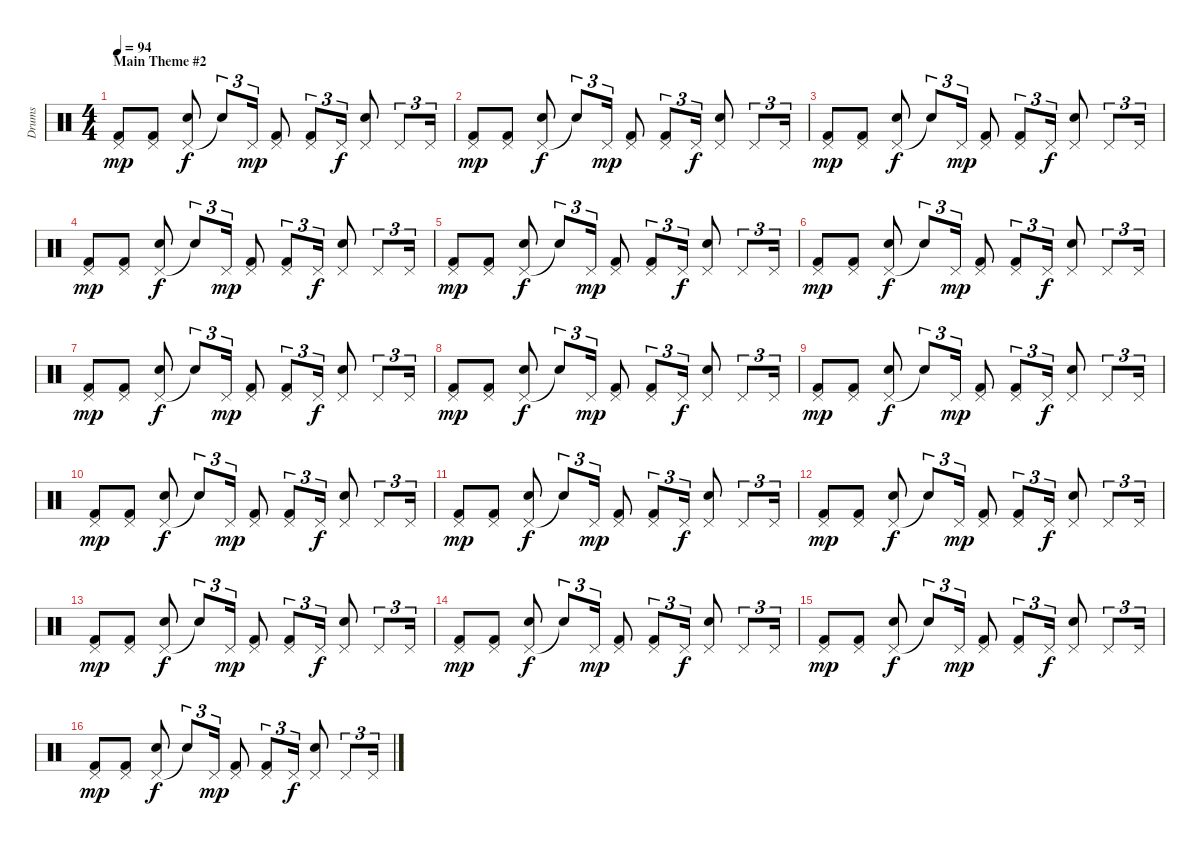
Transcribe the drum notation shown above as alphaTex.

\track ("Drums" "Drums") {instrument percussion}
\staff {score}
\articulation defaults
\ts (4 4)
\section ("" "Main Theme #2")
\tempo 94
\clef neutral
\ks c
("Pedal Hi-Hat (hit)" "Kick (hit) 2").8{dy mp} ("Pedal Hi-Hat (hit)" "Kick (hit) 2").8 ("Pedal Hi-Hat (hit)" "Electric Snare (hit)").8{dy f} "Snare (hit)"{t}.8{tu (3 2)} "Pedal Hi-Hat (hit)".16{tu (3 2) dy mp} ("Pedal Hi-Hat (hit)" "Kick (hit) 2").8 ("Pedal Hi-Hat (hit)" "Kick (hit) 2").8{tu (3 2)} "Pedal Hi-Hat (hit)".16{tu (3 2) dy f} ("Pedal Hi-Hat (hit)" "Electric Snare (hit)").8 "Pedal Hi-Hat (hit)".8{tu (3 2)} "Pedal Hi-Hat (hit)".16{tu (3 2)} |
("Pedal Hi-Hat (hit)" "Kick (hit) 2").8{dy mp} ("Pedal Hi-Hat (hit)" "Kick (hit) 2").8 ("Pedal Hi-Hat (hit)" "Electric Snare (hit)").8{dy f} "Snare (hit)"{t}.8{tu (3 2)} "Pedal Hi-Hat (hit)".16{tu (3 2) dy mp} ("Pedal Hi-Hat (hit)" "Kick (hit) 2").8 ("Pedal Hi-Hat (hit)" "Kick (hit) 2").8{tu (3 2)} "Pedal Hi-Hat (hit)".16{tu (3 2) dy f} ("Pedal Hi-Hat (hit)" "Electric Snare (hit)").8 "Pedal Hi-Hat (hit)".8{tu (3 2)} "Pedal Hi-Hat (hit)".16{tu (3 2)} |
("Pedal Hi-Hat (hit)" "Kick (hit) 2").8{dy mp} ("Pedal Hi-Hat (hit)" "Kick (hit) 2").8 ("Pedal Hi-Hat (hit)" "Electric Snare (hit)").8{dy f} "Snare (hit)"{t}.8{tu (3 2)} "Pedal Hi-Hat (hit)".16{tu (3 2) dy mp} ("Pedal Hi-Hat (hit)" "Kick (hit) 2").8 ("Pedal Hi-Hat (hit)" "Kick (hit) 2").8{tu (3 2)} "Pedal Hi-Hat (hit)".16{tu (3 2) dy f} ("Pedal Hi-Hat (hit)" "Electric Snare (hit)").8 "Pedal Hi-Hat (hit)".8{tu (3 2)} "Pedal Hi-Hat (hit)".16{tu (3 2)} |
("Pedal Hi-Hat (hit)" "Kick (hit) 2").8{dy mp} ("Pedal Hi-Hat (hit)" "Kick (hit) 2").8 ("Pedal Hi-Hat (hit)" "Electric Snare (hit)").8{dy f} "Snare (hit)"{t}.8{tu (3 2)} "Pedal Hi-Hat (hit)".16{tu (3 2) dy mp} ("Pedal Hi-Hat (hit)" "Kick (hit) 2").8 ("Pedal Hi-Hat (hit)" "Kick (hit) 2").8{tu (3 2)} "Pedal Hi-Hat (hit)".16{tu (3 2) dy f} ("Pedal Hi-Hat (hit)" "Electric Snare (hit)").8 "Pedal Hi-Hat (hit)".8{tu (3 2)} "Pedal Hi-Hat (hit)".16{tu (3 2)} |
("Pedal Hi-Hat (hit)" "Kick (hit) 2").8{dy mp} ("Pedal Hi-Hat (hit)" "Kick (hit) 2").8 ("Pedal Hi-Hat (hit)" "Electric Snare (hit)").8{dy f} "Snare (hit)"{t}.8{tu (3 2)} "Pedal Hi-Hat (hit)".16{tu (3 2) dy mp} ("Pedal Hi-Hat (hit)" "Kick (hit) 2").8 ("Pedal Hi-Hat (hit)" "Kick (hit) 2").8{tu (3 2)} "Pedal Hi-Hat (hit)".16{tu (3 2) dy f} ("Pedal Hi-Hat (hit)" "Electric Snare (hit)").8 "Pedal Hi-Hat (hit)".8{tu (3 2)} "Pedal Hi-Hat (hit)".16{tu (3 2)} |
("Pedal Hi-Hat (hit)" "Kick (hit) 2").8{dy mp} ("Pedal Hi-Hat (hit)" "Kick (hit) 2").8 ("Pedal Hi-Hat (hit)" "Electric Snare (hit)").8{dy f} "Snare (hit)"{t}.8{tu (3 2)} "Pedal Hi-Hat (hit)".16{tu (3 2) dy mp} ("Pedal Hi-Hat (hit)" "Kick (hit) 2").8 ("Pedal Hi-Hat (hit)" "Kick (hit) 2").8{tu (3 2)} "Pedal Hi-Hat (hit)".16{tu (3 2) dy f} ("Pedal Hi-Hat (hit)" "Electric Snare (hit)").8 "Pedal Hi-Hat (hit)".8{tu (3 2)} "Pedal Hi-Hat (hit)".16{tu (3 2)} |
("Pedal Hi-Hat (hit)" "Kick (hit) 2").8{dy mp} ("Pedal Hi-Hat (hit)" "Kick (hit) 2").8 ("Pedal Hi-Hat (hit)" "Electric Snare (hit)").8{dy f} "Snare (hit)"{t}.8{tu (3 2)} "Pedal Hi-Hat (hit)".16{tu (3 2) dy mp} ("Pedal Hi-Hat (hit)" "Kick (hit) 2").8 ("Pedal Hi-Hat (hit)" "Kick (hit) 2").8{tu (3 2)} "Pedal Hi-Hat (hit)".16{tu (3 2) dy f} ("Pedal Hi-Hat (hit)" "Electric Snare (hit)").8 "Pedal Hi-Hat (hit)".8{tu (3 2)} "Pedal Hi-Hat (hit)".16{tu (3 2)} |
("Pedal Hi-Hat (hit)" "Kick (hit) 2").8{dy mp} ("Pedal Hi-Hat (hit)" "Kick (hit) 2").8 ("Pedal Hi-Hat (hit)" "Electric Snare (hit)").8{dy f} "Snare (hit)"{t}.8{tu (3 2)} "Pedal Hi-Hat (hit)".16{tu (3 2) dy mp} ("Pedal Hi-Hat (hit)" "Kick (hit) 2").8 ("Pedal Hi-Hat (hit)" "Kick (hit) 2").8{tu (3 2)} "Pedal Hi-Hat (hit)".16{tu (3 2) dy f} ("Pedal Hi-Hat (hit)" "Electric Snare (hit)").8 "Pedal Hi-Hat (hit)".8{tu (3 2)} "Pedal Hi-Hat (hit)".16{tu (3 2)} |
("Pedal Hi-Hat (hit)" "Kick (hit) 2").8{dy mp} ("Pedal Hi-Hat (hit)" "Kick (hit) 2").8 ("Pedal Hi-Hat (hit)" "Electric Snare (hit)").8{dy f} "Snare (hit)"{t}.8{tu (3 2)} "Pedal Hi-Hat (hit)".16{tu (3 2) dy mp} ("Pedal Hi-Hat (hit)" "Kick (hit) 2").8 ("Pedal Hi-Hat (hit)" "Kick (hit) 2").8{tu (3 2)} "Pedal Hi-Hat (hit)".16{tu (3 2) dy f} ("Pedal Hi-Hat (hit)" "Electric Snare (hit)").8 "Pedal Hi-Hat (hit)".8{tu (3 2)} "Pedal Hi-Hat (hit)".16{tu (3 2)} |
("Pedal Hi-Hat (hit)" "Kick (hit) 2").8{dy mp} ("Pedal Hi-Hat (hit)" "Kick (hit) 2").8 ("Pedal Hi-Hat (hit)" "Electric Snare (hit)").8{dy f} "Snare (hit)"{t}.8{tu (3 2)} "Pedal Hi-Hat (hit)".16{tu (3 2) dy mp} ("Pedal Hi-Hat (hit)" "Kick (hit) 2").8 ("Pedal Hi-Hat (hit)" "Kick (hit) 2").8{tu (3 2)} "Pedal Hi-Hat (hit)".16{tu (3 2) dy f} ("Pedal Hi-Hat (hit)" "Electric Snare (hit)").8 "Pedal Hi-Hat (hit)".8{tu (3 2)} "Pedal Hi-Hat (hit)".16{tu (3 2)} |
("Pedal Hi-Hat (hit)" "Kick (hit) 2").8{dy mp} ("Pedal Hi-Hat (hit)" "Kick (hit) 2").8 ("Pedal Hi-Hat (hit)" "Electric Snare (hit)").8{dy f} "Snare (hit)"{t}.8{tu (3 2)} "Pedal Hi-Hat (hit)".16{tu (3 2) dy mp} ("Pedal Hi-Hat (hit)" "Kick (hit) 2").8 ("Pedal Hi-Hat (hit)" "Kick (hit) 2").8{tu (3 2)} "Pedal Hi-Hat (hit)".16{tu (3 2) dy f} ("Pedal Hi-Hat (hit)" "Electric Snare (hit)").8 "Pedal Hi-Hat (hit)".8{tu (3 2)} "Pedal Hi-Hat (hit)".16{tu (3 2)} |
("Pedal Hi-Hat (hit)" "Kick (hit) 2").8{dy mp} ("Pedal Hi-Hat (hit)" "Kick (hit) 2").8 ("Pedal Hi-Hat (hit)" "Electric Snare (hit)").8{dy f} "Snare (hit)"{t}.8{tu (3 2)} "Pedal Hi-Hat (hit)".16{tu (3 2) dy mp} ("Pedal Hi-Hat (hit)" "Kick (hit) 2").8 ("Pedal Hi-Hat (hit)" "Kick (hit) 2").8{tu (3 2)} "Pedal Hi-Hat (hit)".16{tu (3 2) dy f} ("Pedal Hi-Hat (hit)" "Electric Snare (hit)").8 "Pedal Hi-Hat (hit)".8{tu (3 2)} "Pedal Hi-Hat (hit)".16{tu (3 2)} |
("Pedal Hi-Hat (hit)" "Kick (hit) 2").8{dy mp} ("Pedal Hi-Hat (hit)" "Kick (hit) 2").8 ("Pedal Hi-Hat (hit)" "Electric Snare (hit)").8{dy f} "Snare (hit)"{t}.8{tu (3 2)} "Pedal Hi-Hat (hit)".16{tu (3 2) dy mp} ("Pedal Hi-Hat (hit)" "Kick (hit) 2").8 ("Pedal Hi-Hat (hit)" "Kick (hit) 2").8{tu (3 2)} "Pedal Hi-Hat (hit)".16{tu (3 2) dy f} ("Pedal Hi-Hat (hit)" "Electric Snare (hit)").8 "Pedal Hi-Hat (hit)".8{tu (3 2)} "Pedal Hi-Hat (hit)".16{tu (3 2)} |
("Pedal Hi-Hat (hit)" "Kick (hit) 2").8{dy mp} ("Pedal Hi-Hat (hit)" "Kick (hit) 2").8 ("Pedal Hi-Hat (hit)" "Electric Snare (hit)").8{dy f} "Snare (hit)"{t}.8{tu (3 2)} "Pedal Hi-Hat (hit)".16{tu (3 2) dy mp} ("Pedal Hi-Hat (hit)" "Kick (hit) 2").8 ("Pedal Hi-Hat (hit)" "Kick (hit) 2").8{tu (3 2)} "Pedal Hi-Hat (hit)".16{tu (3 2) dy f} ("Pedal Hi-Hat (hit)" "Electric Snare (hit)").8 "Pedal Hi-Hat (hit)".8{tu (3 2)} "Pedal Hi-Hat (hit)".16{tu (3 2)} |
("Pedal Hi-Hat (hit)" "Kick (hit) 2").8{dy mp} ("Pedal Hi-Hat (hit)" "Kick (hit) 2").8 ("Pedal Hi-Hat (hit)" "Electric Snare (hit)").8{dy f} "Snare (hit)"{t}.8{tu (3 2)} "Pedal Hi-Hat (hit)".16{tu (3 2) dy mp} ("Pedal Hi-Hat (hit)" "Kick (hit) 2").8 ("Pedal Hi-Hat (hit)" "Kick (hit) 2").8{tu (3 2)} "Pedal Hi-Hat (hit)".16{tu (3 2) dy f} ("Pedal Hi-Hat (hit)" "Electric Snare (hit)").8 "Pedal Hi-Hat (hit)".8{tu (3 2)} "Pedal Hi-Hat (hit)".16{tu (3 2)} |
("Pedal Hi-Hat (hit)" "Kick (hit) 2").8{dy mp} ("Pedal Hi-Hat (hit)" "Kick (hit) 2").8 ("Pedal Hi-Hat (hit)" "Electric Snare (hit)").8{dy f} "Snare (hit)"{t}.8{tu (3 2)} "Pedal Hi-Hat (hit)".16{tu (3 2) dy mp} ("Pedal Hi-Hat (hit)" "Kick (hit) 2").8 ("Pedal Hi-Hat (hit)" "Kick (hit) 2").8{tu (3 2)} "Pedal Hi-Hat (hit)".16{tu (3 2) dy f} ("Pedal Hi-Hat (hit)" "Electric Snare (hit)").8 "Pedal Hi-Hat (hit)".8{tu (3 2)} "Pedal Hi-Hat (hit)".16{tu (3 2)}
